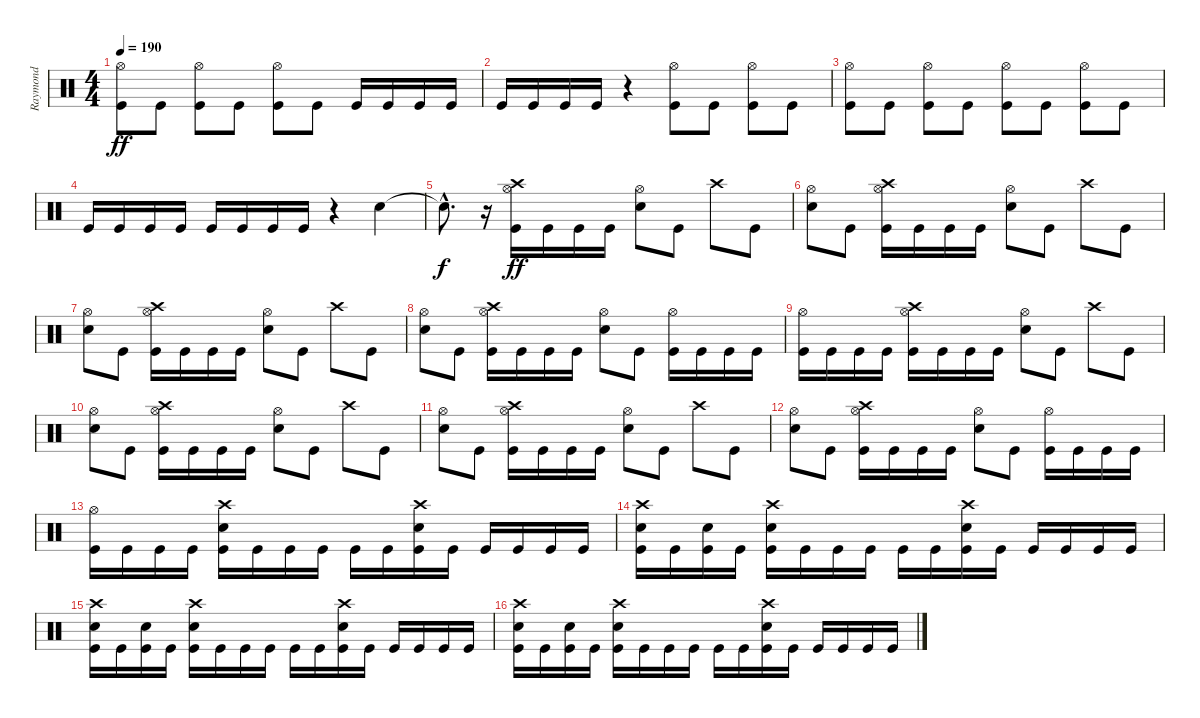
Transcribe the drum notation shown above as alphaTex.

\track ("Raymond" "Raymond") {instrument percussion}
\staff {score}
\articulation defaults
\ts (4 4)
\tempo 190
\clef neutral
\ks c
("Kick (hit)" "Hi-Hat (open)").8{dy ff} "Kick (hit)".8 ("Kick (hit)" "Hi-Hat (open)").8 "Kick (hit)".8 ("Kick (hit)" "Hi-Hat (open)").8 "Kick (hit)".8 "Kick (hit)".16 "Kick (hit)".16 "Kick (hit)".16 "Kick (hit)".16 |
"Kick (hit)".16 "Kick (hit)".16 "Kick (hit)".16 "Kick (hit)".16 r.4 ("Kick (hit)" "Hi-Hat (open)").8 "Kick (hit)".8 ("Kick (hit)" "Hi-Hat (open)").8 "Kick (hit)".8 |
("Kick (hit)" "Hi-Hat (open)").8 "Kick (hit)".8 ("Kick (hit)" "Hi-Hat (open)").8 "Kick (hit)".8 ("Kick (hit)" "Hi-Hat (open)").8 "Kick (hit)".8 ("Kick (hit)" "Hi-Hat (open)").8 "Kick (hit)".8 |
"Kick (hit)".16 "Kick (hit)".16 "Kick (hit)".16 "Kick (hit)".16 "Kick (hit)".16 "Kick (hit)".16 "Kick (hit)".16 "Kick (hit)".16 r.4 "Snare (hit) 2".4 |
"Snare (hit)"{hac t}.8{d dy f} r.16 ("Kick (hit)" "Hi-Hat (open)" "Crash high (hit)").16{dy ff} "Kick (hit)".16 "Kick (hit)".16 "Kick (hit)".16 ("Snare (hit) 2" "Hi-Hat (open)").8 "Kick (hit)".8 "Crash high (hit)".8 "Kick (hit)".8 |
("Snare (hit) 2" "Hi-Hat (open)").8 "Kick (hit)".8 ("Kick (hit)" "Hi-Hat (open)" "Crash high (hit)").16 "Kick (hit)".16 "Kick (hit)".16 "Kick (hit)".16 ("Snare (hit) 2" "Hi-Hat (open)").8 "Kick (hit)".8 "Crash high (hit)".8 "Kick (hit)".8 |
("Snare (hit) 2" "Hi-Hat (open)").8 "Kick (hit)".8 ("Kick (hit)" "Hi-Hat (open)" "Crash high (hit)").16 "Kick (hit)".16 "Kick (hit)".16 "Kick (hit)".16 ("Snare (hit) 2" "Hi-Hat (open)").8 "Kick (hit)".8 "Crash high (hit)".8 "Kick (hit)".8 |
("Snare (hit) 2" "Hi-Hat (open)").8 "Kick (hit)".8 ("Kick (hit)" "Hi-Hat (open)" "Crash high (hit)").16 "Kick (hit)".16 "Kick (hit)".16 "Kick (hit)".16 ("Snare (hit) 2" "Hi-Hat (open)").8 "Kick (hit)".8 ("Kick (hit)" "Hi-Hat (open)").16 "Kick (hit)".16 "Kick (hit)".16 "Kick (hit)".16 |
("Kick (hit)" "Hi-Hat (open)").16 "Kick (hit)".16 "Kick (hit)".16 "Kick (hit)".16 ("Kick (hit)" "Hi-Hat (open)" "Crash high (hit)").16 "Kick (hit)".16 "Kick (hit)".16 "Kick (hit)".16 ("Snare (hit) 2" "Hi-Hat (open)").8 "Kick (hit)".8 "Crash high (hit)".8 "Kick (hit)".8 |
("Snare (hit) 2" "Hi-Hat (open)").8 "Kick (hit)".8 ("Kick (hit)" "Hi-Hat (open)" "Crash high (hit)").16 "Kick (hit)".16 "Kick (hit)".16 "Kick (hit)".16 ("Snare (hit) 2" "Hi-Hat (open)").8 "Kick (hit)".8 "Crash high (hit)".8 "Kick (hit)".8 |
("Snare (hit) 2" "Hi-Hat (open)").8 "Kick (hit)".8 ("Kick (hit)" "Hi-Hat (open)" "Crash high (hit)").16 "Kick (hit)".16 "Kick (hit)".16 "Kick (hit)".16 ("Snare (hit) 2" "Hi-Hat (open)").8 "Kick (hit)".8 "Crash high (hit)".8 "Kick (hit)".8 |
("Snare (hit) 2" "Hi-Hat (open)").8 "Kick (hit)".8 ("Kick (hit)" "Hi-Hat (open)" "Crash high (hit)").16 "Kick (hit)".16 "Kick (hit)".16 "Kick (hit)".16 ("Snare (hit) 2" "Hi-Hat (open)").8 "Kick (hit)".8 ("Kick (hit)" "Hi-Hat (open)").16 "Kick (hit)".16 "Kick (hit)".16 "Kick (hit)".16 |
("Kick (hit)" "Hi-Hat (open)").16 "Kick (hit)".16 "Kick (hit)".16 "Kick (hit)".16 ("Kick (hit)" "Snare (hit) 2" "Crash high (hit)").16 "Kick (hit)".16 "Kick (hit)".16 "Kick (hit)".16 "Kick (hit)".16 "Kick (hit)".16 ("Kick (hit)" "Snare (hit) 2" "Crash high (hit)").16 "Kick (hit)".16 "Kick (hit)".16 "Kick (hit)".16 "Kick (hit)".16 "Kick (hit)".16 |
("Kick (hit)" "Snare (hit) 2" "Crash high (hit)").16 "Kick (hit)".16 ("Kick (hit)" "Snare (hit) 2").16 "Kick (hit)".16 ("Kick (hit)" "Snare (hit) 2" "Crash high (hit)").16 "Kick (hit)".16 "Kick (hit)".16 "Kick (hit)".16 "Kick (hit)".16 "Kick (hit)".16 ("Kick (hit)" "Snare (hit) 2" "Crash high (hit)").16 "Kick (hit)".16 "Kick (hit)".16 "Kick (hit)".16 "Kick (hit)".16 "Kick (hit)".16 |
("Kick (hit)" "Snare (hit) 2" "Crash high (hit)").16 "Kick (hit)".16 ("Kick (hit)" "Snare (hit) 2").16 "Kick (hit)".16 ("Kick (hit)" "Snare (hit) 2" "Crash high (hit)").16 "Kick (hit)".16 "Kick (hit)".16 "Kick (hit)".16 "Kick (hit)".16 "Kick (hit)".16 ("Kick (hit)" "Snare (hit) 2" "Crash high (hit)").16 "Kick (hit)".16 "Kick (hit)".16 "Kick (hit)".16 "Kick (hit)".16 "Kick (hit)".16 |
("Kick (hit)" "Snare (hit) 2" "Crash high (hit)").16 "Kick (hit)".16 ("Kick (hit)" "Snare (hit) 2").16 "Kick (hit)".16 ("Kick (hit)" "Snare (hit) 2" "Crash high (hit)").16 "Kick (hit)".16 "Kick (hit)".16 "Kick (hit)".16 "Kick (hit)".16 "Kick (hit)".16 ("Kick (hit)" "Snare (hit) 2" "Crash high (hit)").16 "Kick (hit)".16 "Kick (hit)".16 "Kick (hit)".16 "Kick (hit)".16 "Kick (hit)".16
